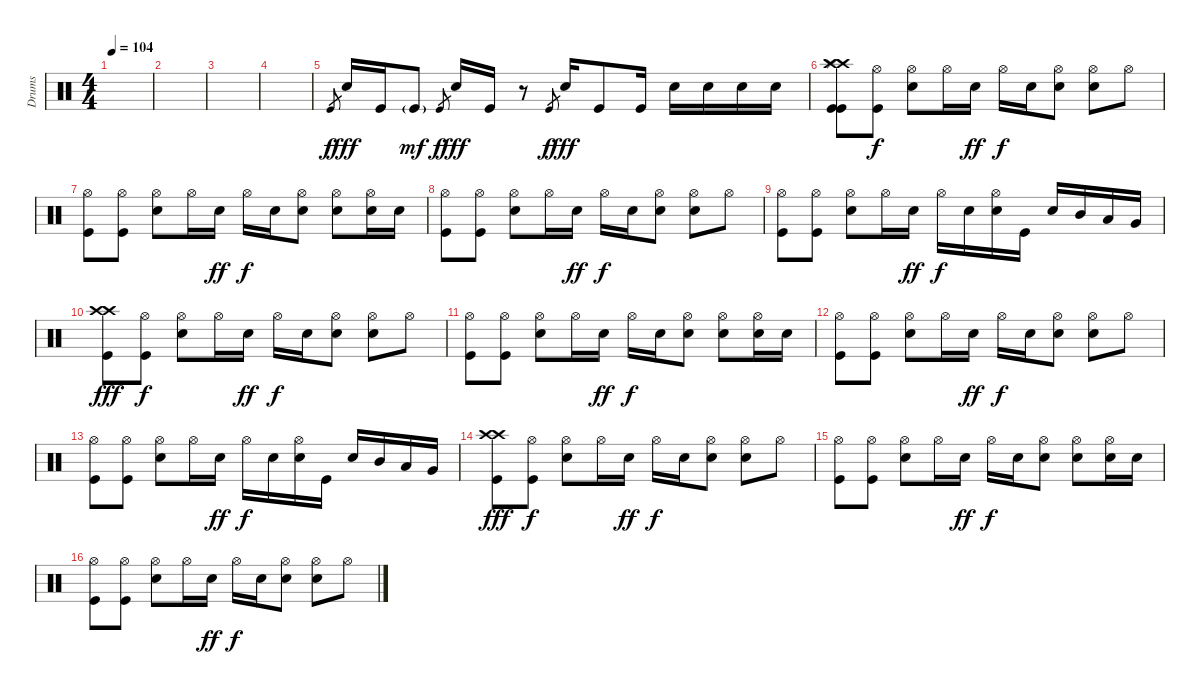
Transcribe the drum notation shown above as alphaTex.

\track ("Drums" "Drums") {instrument percussion}
\staff {score}
\articulation defaults
\ts (4 4)
\tempo 104
\clef neutral
\ks c
|
|
|
|
"Kick (hit)".8{gr} "Snare (hit) 2".16{dy fff} "Kick (hit)".16 "Kick (hit)"{g}.8{dy mf} "Kick (hit)".8{gr dy f} "Snare (hit) 2".16{dy fff} "Kick (hit)".16 r.8 "Kick (hit)".8{gr dy f} "Snare (hit) 2".16{dy fff} "Kick (hit)".8 "Kick (hit)".16 "Snare (hit) 2".16 "Snare (hit) 2".16 "Snare (hit) 2".16 "Snare (hit) 2".16 |
("Crash high (hit)" "Crash high (hit)" "Splash (hit)" "Kick (hit)" "Kick (hit)").8 ("Hi-Hat (open)" "Kick (hit)").8{dy f} ("Hi-Hat (open)" "Snare (hit) 2").8 "Hi-Hat (open)".16 "Snare (hit) 2".16{dy ff} "Hi-Hat (open)".16{dy f} "Snare (hit) 2".16 ("Hi-Hat (open)" "Snare (hit) 2").8 ("Hi-Hat (open)" "Snare (hit) 2").8 "Hi-Hat (open)".8 |
("Hi-Hat (open)" "Kick (hit)").8 ("Hi-Hat (open)" "Kick (hit)").8 ("Hi-Hat (open)" "Snare (hit) 2").8 "Hi-Hat (open)".16 "Snare (hit) 2".16{dy ff} "Hi-Hat (open)".16{dy f} "Snare (hit) 2".16 ("Hi-Hat (open)" "Snare (hit) 2").8 ("Hi-Hat (open)" "Snare (hit) 2").8 ("Hi-Hat (open)" "Snare (hit) 2").16 "Snare (hit) 2".16 |
("Hi-Hat (open)" "Kick (hit)").8 ("Hi-Hat (open)" "Kick (hit)").8 ("Hi-Hat (open)" "Snare (hit) 2").8 "Hi-Hat (open)".16 "Snare (hit) 2".16{dy ff} "Hi-Hat (open)".16{dy f} "Snare (hit) 2".16 ("Hi-Hat (open)" "Snare (hit) 2").8 ("Hi-Hat (open)" "Snare (hit) 2").8 "Hi-Hat (open)".8 |
("Hi-Hat (open)" "Kick (hit)").8 ("Hi-Hat (open)" "Kick (hit)").8 ("Hi-Hat (open)" "Snare (hit) 2").8 "Hi-Hat (open)".16 "Snare (hit) 2".16{dy ff} "Hi-Hat (open)".16{dy f} "Snare (hit) 2".16 ("Hi-Hat (open)" "Snare (hit) 2").16 "Kick (hit)".16 "Snare (hit) 2".16 "Mid Tom (hit)".16 "Low Tom (hit)".16 "Very Low Tom (hit)".16 |
("Crash high (hit)" "Crash high (hit)" "Kick (hit)").8{dy fff} ("Hi-Hat (open)" "Kick (hit)").8{dy f} ("Hi-Hat (open)" "Snare (hit) 2").8 "Hi-Hat (open)".16 "Snare (hit) 2".16{dy ff} "Hi-Hat (open)".16{dy f} "Snare (hit) 2".16 ("Hi-Hat (open)" "Snare (hit) 2").8 ("Hi-Hat (open)" "Snare (hit) 2").8 "Hi-Hat (open)".8 |
("Hi-Hat (open)" "Kick (hit)").8 ("Hi-Hat (open)" "Kick (hit)").8 ("Hi-Hat (open)" "Snare (hit) 2").8 "Hi-Hat (open)".16 "Snare (hit) 2".16{dy ff} "Hi-Hat (open)".16{dy f} "Snare (hit) 2".16 ("Hi-Hat (open)" "Snare (hit) 2").8 ("Hi-Hat (open)" "Snare (hit) 2").8 ("Hi-Hat (open)" "Snare (hit) 2").16 "Snare (hit) 2".16 |
("Hi-Hat (open)" "Kick (hit)").8 ("Hi-Hat (open)" "Kick (hit)").8 ("Hi-Hat (open)" "Snare (hit) 2").8 "Hi-Hat (open)".16 "Snare (hit) 2".16{dy ff} "Hi-Hat (open)".16{dy f} "Snare (hit) 2".16 ("Hi-Hat (open)" "Snare (hit) 2").8 ("Hi-Hat (open)" "Snare (hit) 2").8 "Hi-Hat (open)".8 |
("Hi-Hat (open)" "Kick (hit)").8 ("Hi-Hat (open)" "Kick (hit)").8 ("Hi-Hat (open)" "Snare (hit) 2").8 "Hi-Hat (open)".16 "Snare (hit) 2".16{dy ff} "Hi-Hat (open)".16{dy f} "Snare (hit) 2".16 ("Hi-Hat (open)" "Snare (hit) 2").16 "Kick (hit)".16 "Snare (hit) 2".16 "Mid Tom (hit)".16 "Low Tom (hit)".16 "Very Low Tom (hit)".16 |
("Crash high (hit)" "Crash high (hit)" "Kick (hit)").8{dy fff} ("Hi-Hat (open)" "Kick (hit)").8{dy f} ("Hi-Hat (open)" "Snare (hit) 2").8 "Hi-Hat (open)".16 "Snare (hit) 2".16{dy ff} "Hi-Hat (open)".16{dy f} "Snare (hit) 2".16 ("Hi-Hat (open)" "Snare (hit) 2").8 ("Hi-Hat (open)" "Snare (hit) 2").8 "Hi-Hat (open)".8 |
("Hi-Hat (open)" "Kick (hit)").8 ("Hi-Hat (open)" "Kick (hit)").8 ("Hi-Hat (open)" "Snare (hit) 2").8 "Hi-Hat (open)".16 "Snare (hit) 2".16{dy ff} "Hi-Hat (open)".16{dy f} "Snare (hit) 2".16 ("Hi-Hat (open)" "Snare (hit) 2").8 ("Hi-Hat (open)" "Snare (hit) 2").8 ("Hi-Hat (open)" "Snare (hit) 2").16 "Snare (hit) 2".16 |
("Hi-Hat (open)" "Kick (hit)").8 ("Hi-Hat (open)" "Kick (hit)").8 ("Hi-Hat (open)" "Snare (hit) 2").8 "Hi-Hat (open)".16 "Snare (hit) 2".16{dy ff} "Hi-Hat (open)".16{dy f} "Snare (hit) 2".16 ("Hi-Hat (open)" "Snare (hit) 2").8 ("Hi-Hat (open)" "Snare (hit) 2").8 "Hi-Hat (open)".8
